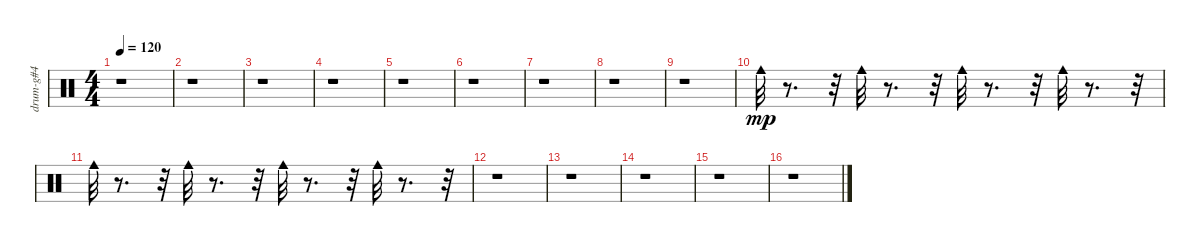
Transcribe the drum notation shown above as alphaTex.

\track ("drum-g#4" "drum-g#4") {instrument percussion}
\staff {score}
\articulation defaults
\ts (4 4)
\tempo 120
\clef neutral
\ks c
r.1{dy mp} |
r.1 |
r.1 |
r.1 |
r.1 |
r.1 |
r.1 |
r.1 |
r.1 |
"Cowbell medium (hit)".32 r.8{d} r.32 "Cowbell medium (hit)".32 r.8{d} r.32 "Cowbell medium (hit)".32 r.8{d} r.32 "Cowbell medium (hit)".32 r.8{d} r.32 |
"Cowbell medium (hit)".32 r.8{d} r.32 "Cowbell medium (hit)".32 r.8{d} r.32 "Cowbell medium (hit)".32 r.8{d} r.32 "Cowbell medium (hit)".32 r.8{d} r.32 |
r.1 |
r.1 |
r.1 |
r.1 |
r.1
